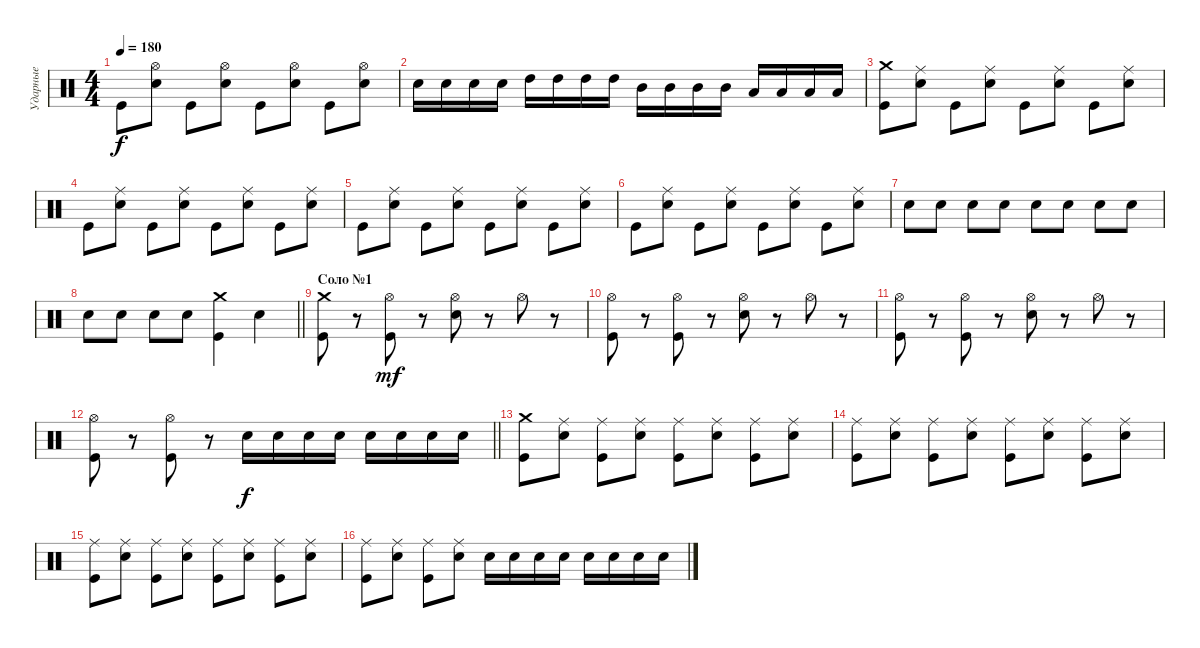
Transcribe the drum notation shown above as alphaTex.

\track ("Ударные" "Ударные") {instrument percussion}
\staff {score}
\articulation defaults
\ts (4 4)
\tempo 180
\clef neutral
\ks c "Kick (hit)".8{dy f}
("Hi-Hat (open)" "Electric Snare (hit)").8 "Kick (hit)".8 ("Hi-Hat (open)" "Electric Snare (hit)").8 "Kick (hit)".8 ("Hi-Hat (open)" "Electric Snare (hit)").8 "Kick (hit)".8 ("Hi-Hat (open)" "Electric Snare (hit)").8 |
"Electric Snare (hit)".16 "Electric Snare (hit)".16 "Electric Snare (hit)".16 "Electric Snare (hit)".16 "High Tom (hit)".16 "High Tom (hit)".16 "High Tom (hit)".16 "High Tom (hit)".16 "Mid Tom (hit)".16 "Mid Tom (hit)".16 "Mid Tom (hit)".16 "Mid Tom (hit)".16 "Low Tom (hit)".16 "Low Tom (hit)".16 "Low Tom (hit)".16 "Low Tom (hit)".16 |
("Crash medium (hit)" "Kick (hit)").8 ("Ride (middle)" "Electric Snare (hit)").8 "Kick (hit)".8 ("Ride (middle)" "Electric Snare (hit)").8 "Kick (hit)".8 ("Ride (middle)" "Electric Snare (hit)").8 "Kick (hit)".8 ("Ride (middle)" "Electric Snare (hit)").8 |
"Kick (hit)".8 ("Ride (middle)" "Electric Snare (hit)").8 "Kick (hit)".8 ("Ride (middle)" "Electric Snare (hit)").8 "Kick (hit)".8 ("Ride (middle)" "Electric Snare (hit)").8 "Kick (hit)".8 ("Ride (middle)" "Electric Snare (hit)").8 |
"Kick (hit)".8 ("Ride (middle)" "Electric Snare (hit)").8 "Kick (hit)".8 ("Ride (middle)" "Electric Snare (hit)").8 "Kick (hit)".8 ("Ride (middle)" "Electric Snare (hit)").8 "Kick (hit)".8 ("Ride (middle)" "Electric Snare (hit)").8 |
"Kick (hit)".8 ("Ride (middle)" "Electric Snare (hit)").8 "Kick (hit)".8 ("Ride (middle)" "Electric Snare (hit)").8 "Kick (hit)".8 ("Ride (middle)" "Electric Snare (hit)").8 "Kick (hit)".8 ("Ride (middle)" "Electric Snare (hit)").8 |
"Electric Snare (hit)".8 "Electric Snare (hit)".8 "Electric Snare (hit)".8 "Electric Snare (hit)".8 "Electric Snare (hit)".8 "Electric Snare (hit)".8 "Electric Snare (hit)".8 "Electric Snare (hit)".8 |
\barLineRight lightlight "Electric Snare (hit)".8 "Electric Snare (hit)".8 "Electric Snare (hit)".8 "Electric Snare (hit)".8
("Crash medium (hit)" "Kick (hit)").4 "Electric Snare (hit)".4 |
\section ("" "Соло №1")
("Kick (hit)" "Crash medium (hit)").8 r.8 ("Kick (hit)" "Hi-Hat (open)").8{dy mf} r.8 ("Electric Snare (hit)" "Hi-Hat (open)").8 r.8 "Hi-Hat (open)".8 r.8 |
("Kick (hit)" "Hi-Hat (open)").8 r.8 ("Kick (hit)" "Hi-Hat (open)").8 r.8 ("Electric Snare (hit)" "Hi-Hat (open)").8 r.8 "Hi-Hat (open)".8 r.8 |
("Kick (hit)" "Hi-Hat (open)").8 r.8 ("Kick (hit)" "Hi-Hat (open)").8 r.8 ("Electric Snare (hit)" "Hi-Hat (open)").8 r.8 "Hi-Hat (open)".8 r.8 |
\barLineRight lightlight
("Kick (hit)" "Hi-Hat (open)").8 r.8 ("Kick (hit)" "Hi-Hat (open)").8 r.8 "Electric Snare (hit)".16{dy f} "Electric Snare (hit)".16 "Electric Snare (hit)".16 "Electric Snare (hit)".16 "Electric Snare (hit)".16 "Electric Snare (hit)".16 "Electric Snare (hit)".16 "Electric Snare (hit)".16 |
("Crash medium (hit)" "Kick (hit)").8 ("Ride (middle)" "Electric Snare (hit)").8 ("Ride (middle)" "Kick (hit)").8 ("Ride (middle)" "Electric Snare (hit)").8 ("Ride (middle)" "Kick (hit)").8 ("Ride (middle)" "Electric Snare (hit)").8 ("Ride (middle)" "Kick (hit)").8 ("Ride (middle)" "Electric Snare (hit)").8 |
("Ride (middle)" "Kick (hit)").8 ("Ride (middle)" "Electric Snare (hit)").8 ("Ride (middle)" "Kick (hit)").8 ("Ride (middle)" "Electric Snare (hit)").8 ("Ride (middle)" "Kick (hit)").8 ("Ride (middle)" "Electric Snare (hit)").8 ("Ride (middle)" "Kick (hit)").8 ("Ride (middle)" "Electric Snare (hit)").8 |
("Ride (middle)" "Kick (hit)").8 ("Ride (middle)" "Electric Snare (hit)").8 ("Ride (middle)" "Kick (hit)").8 ("Ride (middle)" "Electric Snare (hit)").8 ("Ride (middle)" "Kick (hit)").8 ("Ride (middle)" "Electric Snare (hit)").8 ("Ride (middle)" "Kick (hit)").8 ("Ride (middle)" "Electric Snare (hit)").8 |
("Ride (middle)" "Kick (hit)").8 ("Ride (middle)" "Electric Snare (hit)").8 ("Ride (middle)" "Kick (hit)").8 ("Ride (middle)" "Electric Snare (hit)").8 "Electric Snare (hit)".16 "Electric Snare (hit)".16 "Electric Snare (hit)".16 "Electric Snare (hit)".16 "Electric Snare (hit)".16 "Electric Snare (hit)".16 "Electric Snare (hit)".16 "Electric Snare (hit)".16
